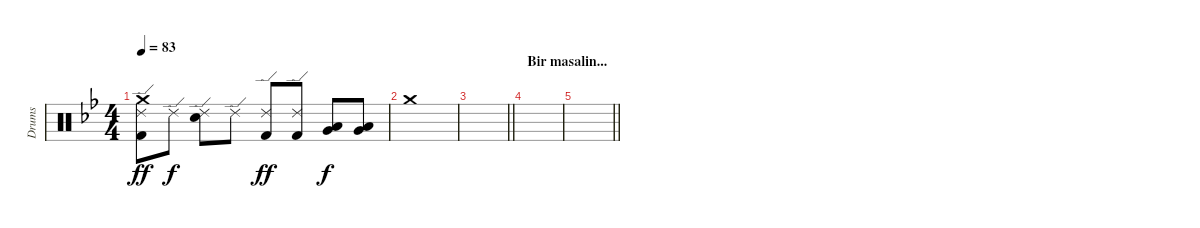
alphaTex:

\track ("Drums" "Drums") {instrument percussion}
\staff {score}
\articulation defaults
\ts (4 4)
\tempo 83
\clef neutral
\ks gminor
("Ride (edge) 2" "Kick (hit) 2" "Crash medium (hit)").8{dy ff} "Ride (edge) 2".8{dy f} ("Ride (edge) 2" "Electric Snare (hit)").8 "Ride (edge) 2".8 ("Ride (edge) 2" "Kick (hit) 2").8{dy ff} ("Ride (edge) 2" "Kick (hit) 2").8 ("Very Low Tom (hit)" "Low Floor Tom (hit)").8{dy f} ("Very Low Tom (hit)" "Low Floor Tom (hit)").8 |
"Crash medium (hit)".1 |
\barLineRight lightlight
|
\section ("" "Bir masalin...")
|
\barLineRight lightlight
